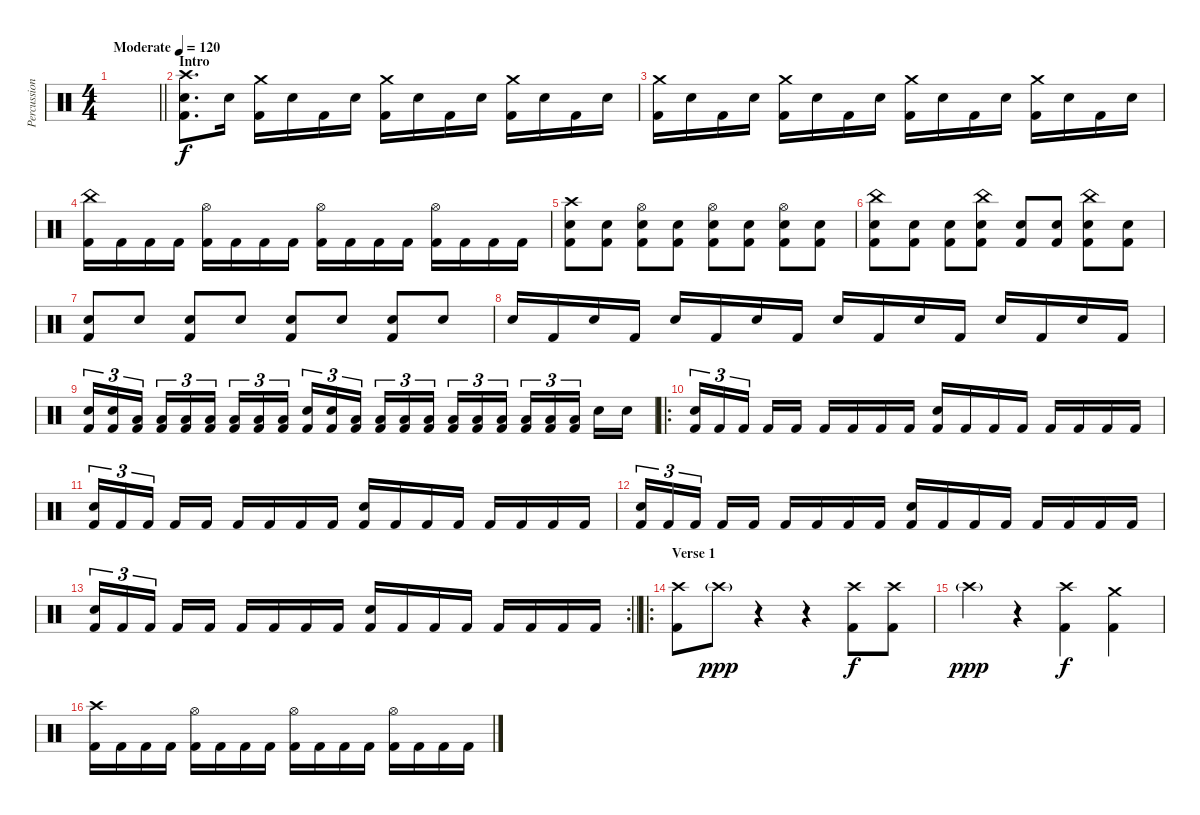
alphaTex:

\track ("Percussions" "Percussion") {instrument percussion}
\staff {score}
\articulation defaults
\ts (4 4)
\tempo (120 "Moderate")
\clef neutral
\barLineRight lightlight
\ks c
|
\section ("" "Intro")
("Crash high (hit)" "Electric Snare (hit)" "Kick (hit) 2").8{d volume 8} "Electric Snare (hit)".16 ("Crash medium (hit)" "Kick (hit) 2").16 "Electric Snare (hit)".16 "Kick (hit) 2".16 "Electric Snare (hit)".16 ("Crash medium (hit)" "Kick (hit) 2").16 "Electric Snare (hit)".16 "Kick (hit) 2".16 "Electric Snare (hit)".16 ("Crash medium (hit)" "Kick (hit) 2").16 "Electric Snare (hit)".16 "Kick (hit) 2".16 "Electric Snare (hit)".16 |
("Crash medium (hit)" "Kick (hit) 2").16 "Electric Snare (hit)".16 "Kick (hit) 2".16 "Electric Snare (hit)".16 ("Crash medium (hit)" "Kick (hit) 2").16 "Electric Snare (hit)".16 "Kick (hit) 2".16 "Electric Snare (hit)".16 ("Crash medium (hit)" "Kick (hit) 2").16 "Electric Snare (hit)".16 "Kick (hit) 2".16 "Electric Snare (hit)".16 ("Crash medium (hit)" "Kick (hit) 2").16 "Electric Snare (hit)".16 "Kick (hit) 2".16 "Electric Snare (hit)".16 |
("China (hit)" "Kick (hit) 2").16 "Kick (hit) 2".16 "Kick (hit) 2".16 "Kick (hit) 2".16 ("Hi-Hat (open)" "Kick (hit) 2").16 "Kick (hit) 2".16 "Kick (hit) 2".16 "Kick (hit) 2".16 ("Hi-Hat (open)" "Kick (hit) 2").16 "Kick (hit) 2".16 "Kick (hit) 2".16 "Kick (hit) 2".16 ("Hi-Hat (open)" "Kick (hit) 2").16 "Kick (hit) 2".16 "Kick (hit) 2".16 "Kick (hit) 2".16 |
("Crash high (hit)" "Electric Snare (hit)" "Kick (hit) 2").8 ("Electric Snare (hit)" "Kick (hit) 2").8 ("Hi-Hat (open)" "Electric Snare (hit)" "Kick (hit) 2").8 ("Electric Snare (hit)" "Kick (hit) 2").8 ("Hi-Hat (open)" "Electric Snare (hit)" "Kick (hit) 2").8 ("Electric Snare (hit)" "Kick (hit) 2").8 ("Hi-Hat (open)" "Electric Snare (hit)" "Kick (hit) 2").8 ("Electric Snare (hit)" "Kick (hit) 2").8 |
("China (hit)" "Electric Snare (hit)" "Kick (hit) 2").8{volume 16} ("Electric Snare (hit)" "Kick (hit) 2").8 ("Electric Snare (hit)" "Kick (hit) 2").8 ("China (hit)" "Electric Snare (hit)" "Kick (hit) 2").8 ("Electric Snare (hit)" "Kick (hit) 2").8 ("Electric Snare (hit)" "Kick (hit) 2").8 ("China (hit)" "Electric Snare (hit)" "Kick (hit) 2").8 ("Electric Snare (hit)" "Kick (hit) 2").8 |
("Electric Snare (hit)" "Kick (hit) 2").8 "Electric Snare (hit)".8 ("Electric Snare (hit)" "Kick (hit) 2").8 "Electric Snare (hit)".8 ("Electric Snare (hit)" "Kick (hit) 2").8 "Electric Snare (hit)".8 ("Electric Snare (hit)" "Kick (hit) 2").8 "Electric Snare (hit)".8 |
"Electric Snare (hit)".16 "Kick (hit) 2".16 "Electric Snare (hit)".16 "Kick (hit) 2".16 "Electric Snare (hit)".16 "Kick (hit) 2".16 "Electric Snare (hit)".16 "Kick (hit) 2".16 "Electric Snare (hit)".16 "Kick (hit) 2".16 "Electric Snare (hit)".16 "Kick (hit) 2".16 "Electric Snare (hit)".16 "Kick (hit) 2".16 "Electric Snare (hit)".16 "Kick (hit) 2".16 |
("Electric Snare (hit)" "Kick (hit) 2").16{tu (3 2)} ("Electric Snare (hit)" "Kick (hit) 2").16{tu (3 2)} ("Low Floor Tom (hit)" "Kick (hit) 2").16{tu (3 2) beam splitsecondary} ("Low Tom (hit)" "Kick (hit) 2").16{tu (3 2)} ("Low Tom (hit)" "Kick (hit) 2").16{tu (3 2)} ("Low Tom (hit)" "Kick (hit) 2").16{tu (3 2)} ("Low Tom (hit)" "Kick (hit) 2").16{tu (3 2)} ("Low Tom (hit)" "Kick (hit) 2").16{tu (3 2)} ("Low Tom (hit)" "Kick (hit) 2").16{tu (3 2) beam splitsecondary} ("Electric Snare (hit)" "Kick (hit) 2").16{tu (3 2)} ("Electric Snare (hit)" "Kick (hit) 2").16{tu (3 2)} ("Low Floor Tom (hit)" "Kick (hit) 2").16{tu (3 2)} ("Low Tom (hit)" "Kick (hit) 2").16{tu (3 2)} ("Low Tom (hit)" "Kick (hit) 2").16{tu (3 2)} ("Low Tom (hit)" "Kick (hit) 2").16{tu (3 2) beam splitsecondary} ("Low Tom (hit)" "Kick (hit) 2").16{tu (3 2)} ("Low Tom (hit)" "Kick (hit) 2").16{tu (3 2)} ("Low Tom (hit)" "Kick (hit) 2").16{tu (3 2)} ("Low Tom (hit)" "Kick (hit) 2").16{tu (3 2)} ("Low Tom (hit)" "Kick (hit) 2").16{tu (3 2)} ("Low Tom (hit)" "Kick (hit) 2").16{tu (3 2) beam splitsecondary} "Electric Snare (hit)".16 "Electric Snare (hit)".16 |
\ro
("Electric Snare (hit)" "Kick (hit) 2").16{tu (3 2)} "Kick (hit) 2".16{tu (3 2)} "Kick (hit) 2".16{tu (3 2) beam splitsecondary} "Kick (hit) 2".16 "Kick (hit) 2".16 "Kick (hit) 2".16 "Kick (hit) 2".16 "Kick (hit) 2".16 "Kick (hit) 2".16 ("Electric Snare (hit)" "Kick (hit) 2").16 "Kick (hit) 2".16 "Kick (hit) 2".16 "Kick (hit) 2".16 "Kick (hit) 2".16 "Kick (hit) 2".16 "Kick (hit) 2".16 "Kick (hit) 2".16 |
("Electric Snare (hit)" "Kick (hit) 2").16{tu (3 2)} "Kick (hit) 2".16{tu (3 2)} "Kick (hit) 2".16{tu (3 2) beam splitsecondary} "Kick (hit) 2".16 "Kick (hit) 2".16 "Kick (hit) 2".16 "Kick (hit) 2".16 "Kick (hit) 2".16 "Kick (hit) 2".16 ("Electric Snare (hit)" "Kick (hit) 2").16 "Kick (hit) 2".16 "Kick (hit) 2".16 "Kick (hit) 2".16 "Kick (hit) 2".16 "Kick (hit) 2".16 "Kick (hit) 2".16 "Kick (hit) 2".16 |
("Electric Snare (hit)" "Kick (hit) 2").16{tu (3 2)} "Kick (hit) 2".16{tu (3 2)} "Kick (hit) 2".16{tu (3 2) beam splitsecondary} "Kick (hit) 2".16 "Kick (hit) 2".16 "Kick (hit) 2".16 "Kick (hit) 2".16 "Kick (hit) 2".16 "Kick (hit) 2".16 ("Electric Snare (hit)" "Kick (hit) 2").16 "Kick (hit) 2".16 "Kick (hit) 2".16 "Kick (hit) 2".16 "Kick (hit) 2".16 "Kick (hit) 2".16 "Kick (hit) 2".16 "Kick (hit) 2".16 |
\rc 2
\barLineRight lightlight
("Electric Snare (hit)" "Kick (hit) 2").16{tu (3 2)} "Kick (hit) 2".16{tu (3 2)} "Kick (hit) 2".16{tu (3 2) beam splitsecondary} "Kick (hit) 2".16 "Kick (hit) 2".16 "Kick (hit) 2".16 "Kick (hit) 2".16 "Kick (hit) 2".16 "Kick (hit) 2".16 ("Electric Snare (hit)" "Kick (hit) 2").16 "Kick (hit) 2".16 "Kick (hit) 2".16 "Kick (hit) 2".16 "Kick (hit) 2".16 "Kick (hit) 2".16 "Kick (hit) 2".16 "Kick (hit) 2".16 |
\ro
\section ("" "Verse 1")
("Crash high (hit)" "Kick (hit) 2").8 "Crash high (hit)"{g}.8{dy ppp} r.4 r.4 ("Crash high (hit)" "Kick (hit) 2").8{dy f} ("Crash high (hit)" "Kick (hit) 2").8 |
"Crash high (hit)"{g}.4{dy ppp} r.4 ("Crash high (hit)" "Kick (hit) 2").4{dy f} ("Crash medium (hit)" "Kick (hit) 2").4 |
("Crash high (hit)" "Kick (hit) 2").16 "Kick (hit) 2".16 "Kick (hit) 2".16 "Kick (hit) 2".16 ("Hi-Hat (open)" "Kick (hit) 2").16 "Kick (hit) 2".16 "Kick (hit) 2".16 "Kick (hit) 2".16 ("Hi-Hat (open)" "Kick (hit) 2").16 "Kick (hit) 2".16 "Kick (hit) 2".16 "Kick (hit) 2".16 ("Hi-Hat (open)" "Kick (hit) 2").16 "Kick (hit) 2".16 "Kick (hit) 2".16 "Kick (hit) 2".16
